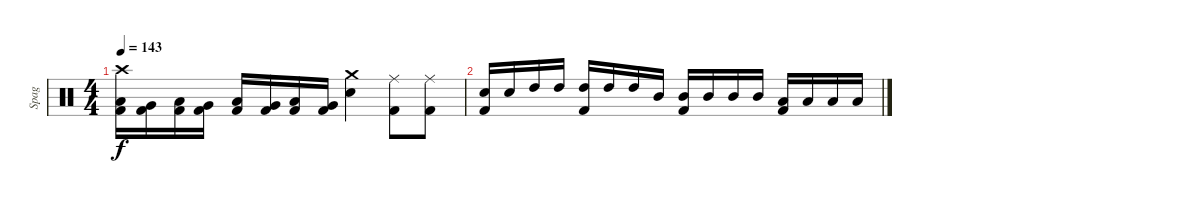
\track ("Spag" "Spag") {instrument percussion}
\staff {score}
\articulation defaults
\ts (4 4)
\tempo 143
\clef neutral
\ks c
("Crash high (hit)" "Low Floor Tom (hit)" "Kick (hit) 2").16{dy f volume 2} ("Very Low Tom (hit)" "Kick (hit) 2").16 ("Low Floor Tom (hit)" "Kick (hit) 2").16 ("Very Low Tom (hit)" "Kick (hit) 2").16 ("Low Floor Tom (hit)" "Kick (hit) 2").16 ("Very Low Tom (hit)" "Kick (hit) 2").16 ("Low Floor Tom (hit)" "Kick (hit) 2").16 ("Very Low Tom (hit)" "Kick (hit) 2").16 ("Crash medium (hit)" "Electric Snare (hit)").4 ("Ride (middle)" "Kick (hit) 2").8 ("Ride (middle)" "Kick (hit) 2").8 |
("Electric Snare (hit)" "Kick (hit) 2").16 "Electric Snare (hit)".16 "High Tom (hit)".16 "High Tom (hit)".16 ("High Tom (hit)" "Kick (hit) 2").16 "High Tom (hit)".16 "High Tom (hit)".16 "Mid Tom (hit)".16 ("Mid Tom (hit)" "Kick (hit) 2").16 "Mid Tom (hit)".16 "Mid Tom (hit)".16 "Mid Tom (hit)".16 ("Low Tom (hit)" "Kick (hit) 2").16 "Low Tom (hit)".16 "Low Tom (hit)".16 "Low Tom (hit)".16
